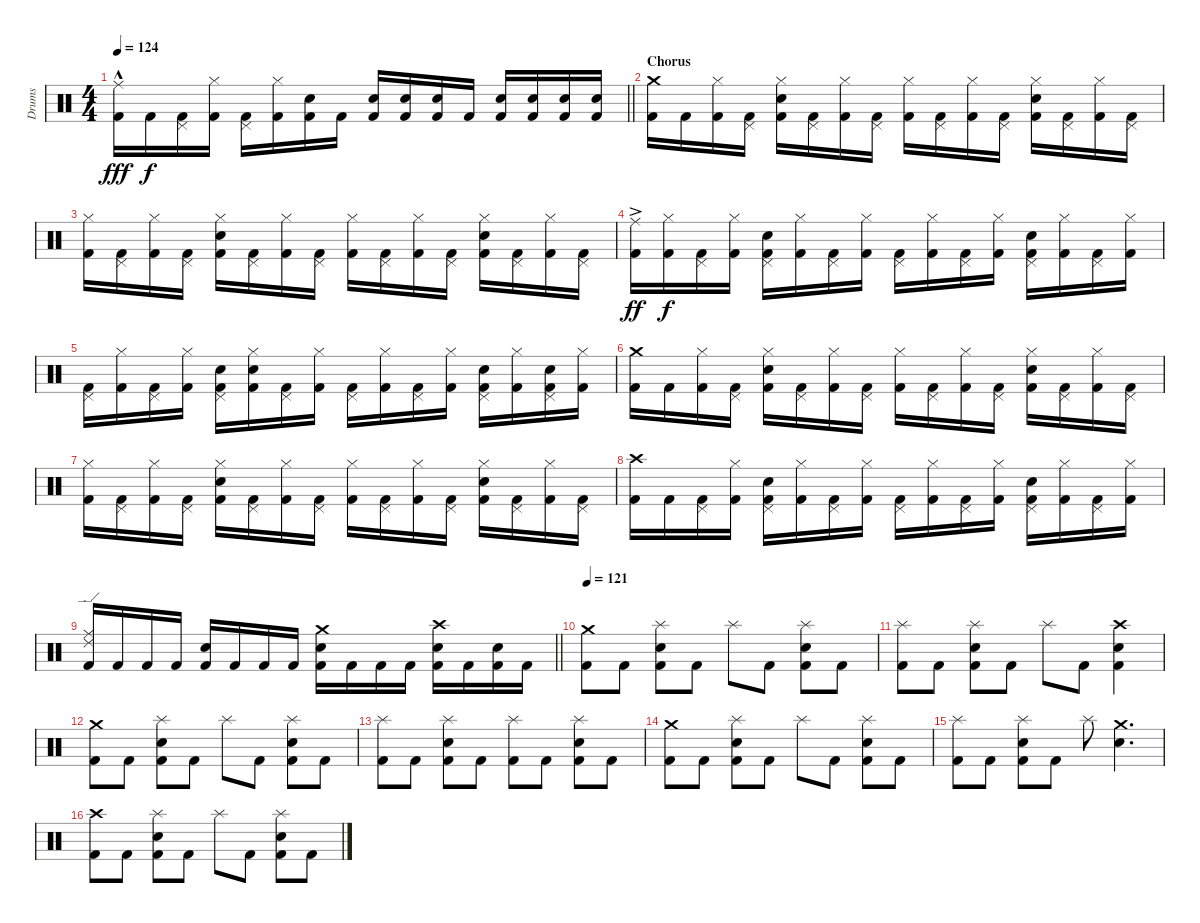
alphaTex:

\track ("Drums" "Drums") {instrument percussion}
\staff {score}
\articulation defaults
\ts (4 4)
\tempo 124
\clef neutral
\barLineRight lightlight
\ks c
("Kick (hit) 2" "Ride (middle)"{hac}).16{dy fff} "Kick (hit) 2".16{dy f} ("Kick (hit) 2" "Pedal Hi-Hat (hit)").16 ("Kick (hit) 2" "Hi-Hat (closed)").16 ("Kick (hit) 2" "Pedal Hi-Hat (hit)").16 ("Kick (hit) 2" "Hi-Hat (closed)").16 ("Kick (hit) 2" "Snare (hit) 2").16 "Kick (hit) 2".16 ("Kick (hit) 2" "Snare (hit) 2").16 ("Kick (hit) 2" "Snare (hit) 2").16 ("Kick (hit) 2" "Snare (hit) 2").16 "Kick (hit) 2".16 ("Kick (hit) 2" "Snare (hit) 2").16 ("Kick (hit) 2" "Snare (hit) 2").16 ("Kick (hit) 2" "Snare (hit) 2").16 ("Kick (hit) 2" "Snare (hit) 2").16 |
\section ("" "Chorus")
("Kick (hit) 2" "Crash medium (hit)").16 "Kick (hit) 2".16 ("Kick (hit) 2" "Hi-Hat (closed)").16 ("Kick (hit) 2" "Pedal Hi-Hat (hit)").16 ("Kick (hit) 2" "Snare (hit) 2" "Hi-Hat (closed)").16 ("Kick (hit) 2" "Pedal Hi-Hat (hit)").16 ("Kick (hit) 2" "Hi-Hat (closed)").16 ("Kick (hit) 2" "Pedal Hi-Hat (hit)").16 ("Kick (hit) 2" "Hi-Hat (closed)").16 ("Kick (hit) 2" "Pedal Hi-Hat (hit)").16 ("Kick (hit) 2" "Hi-Hat (closed)").16 ("Kick (hit) 2" "Pedal Hi-Hat (hit)").16 ("Kick (hit) 2" "Snare (hit) 2" "Hi-Hat (closed)").16 ("Kick (hit) 2" "Pedal Hi-Hat (hit)").16 ("Kick (hit) 2" "Hi-Hat (closed)").16 ("Kick (hit) 2" "Pedal Hi-Hat (hit)").16 |
("Kick (hit) 2" "Hi-Hat (closed)").16 ("Kick (hit) 2" "Pedal Hi-Hat (hit)").16 ("Kick (hit) 2" "Hi-Hat (closed)").16 ("Kick (hit) 2" "Pedal Hi-Hat (hit)").16 ("Kick (hit) 2" "Snare (hit) 2" "Hi-Hat (closed)").16 ("Kick (hit) 2" "Pedal Hi-Hat (hit)").16 ("Kick (hit) 2" "Hi-Hat (closed)").16 ("Kick (hit) 2" "Pedal Hi-Hat (hit)").16 ("Kick (hit) 2" "Hi-Hat (closed)").16 ("Kick (hit) 2" "Pedal Hi-Hat (hit)").16 ("Kick (hit) 2" "Hi-Hat (closed)").16 ("Kick (hit) 2" "Pedal Hi-Hat (hit)").16 ("Kick (hit) 2" "Snare (hit) 2" "Hi-Hat (closed)").16 ("Kick (hit) 2" "Pedal Hi-Hat (hit)").16 ("Kick (hit) 2" "Hi-Hat (closed)").16 ("Kick (hit) 2" "Pedal Hi-Hat (hit)").16 |
("Kick (hit) 2" "Ride (middle)"{ac}).16{dy ff} ("Kick (hit) 2" "Hi-Hat (closed)").16{dy f} ("Kick (hit) 2" "Pedal Hi-Hat (hit)").16 ("Kick (hit) 2" "Hi-Hat (closed)").16 ("Kick (hit) 2" "Snare (hit) 2" "Pedal Hi-Hat (hit)").16 ("Kick (hit) 2" "Hi-Hat (closed)").16 ("Kick (hit) 2" "Pedal Hi-Hat (hit)").16 ("Kick (hit) 2" "Hi-Hat (closed)").16 ("Kick (hit) 2" "Pedal Hi-Hat (hit)").16 ("Kick (hit) 2" "Hi-Hat (closed)").16 ("Kick (hit) 2" "Pedal Hi-Hat (hit)").16 ("Kick (hit) 2" "Hi-Hat (closed)").16 ("Kick (hit) 2" "Snare (hit) 2" "Pedal Hi-Hat (hit)").16 ("Kick (hit) 2" "Hi-Hat (closed)").16 ("Kick (hit) 2" "Pedal Hi-Hat (hit)").16 ("Kick (hit) 2" "Hi-Hat (closed)").16 |
("Kick (hit) 2" "Pedal Hi-Hat (hit)").16 ("Kick (hit) 2" "Hi-Hat (closed)").16 ("Kick (hit) 2" "Pedal Hi-Hat (hit)").16 ("Kick (hit) 2" "Hi-Hat (closed)").16 ("Kick (hit) 2" "Snare (hit) 2" "Pedal Hi-Hat (hit)").16 ("Kick (hit) 2" "Snare (hit) 2" "Hi-Hat (closed)").16 ("Kick (hit) 2" "Pedal Hi-Hat (hit)").16 ("Kick (hit) 2" "Hi-Hat (closed)").16 ("Kick (hit) 2" "Pedal Hi-Hat (hit)").16 ("Kick (hit) 2" "Hi-Hat (closed)").16 ("Kick (hit) 2" "Pedal Hi-Hat (hit)").16 ("Kick (hit) 2" "Hi-Hat (closed)").16 ("Kick (hit) 2" "Snare (hit) 2" "Pedal Hi-Hat (hit)").16 ("Kick (hit) 2" "Hi-Hat (closed)").16 ("Kick (hit) 2" "Snare (hit) 2" "Pedal Hi-Hat (hit)").16 ("Kick (hit) 2" "Hi-Hat (closed)").16 |
("Kick (hit) 2" "Crash medium (hit)").16 "Kick (hit) 2".16 ("Kick (hit) 2" "Hi-Hat (closed)").16 ("Kick (hit) 2" "Pedal Hi-Hat (hit)").16 ("Kick (hit) 2" "Snare (hit) 2" "Hi-Hat (closed)").16 ("Kick (hit) 2" "Pedal Hi-Hat (hit)").16 ("Kick (hit) 2" "Hi-Hat (closed)").16 ("Kick (hit) 2" "Pedal Hi-Hat (hit)").16 ("Kick (hit) 2" "Hi-Hat (closed)").16 ("Kick (hit) 2" "Pedal Hi-Hat (hit)").16 ("Kick (hit) 2" "Hi-Hat (closed)").16 ("Kick (hit) 2" "Pedal Hi-Hat (hit)").16 ("Kick (hit) 2" "Snare (hit) 2" "Hi-Hat (closed)").16 ("Kick (hit) 2" "Pedal Hi-Hat (hit)").16 ("Kick (hit) 2" "Hi-Hat (closed)").16 ("Kick (hit) 2" "Pedal Hi-Hat (hit)").16 |
("Kick (hit) 2" "Hi-Hat (closed)").16 ("Kick (hit) 2" "Pedal Hi-Hat (hit)").16 ("Kick (hit) 2" "Hi-Hat (closed)").16 ("Kick (hit) 2" "Pedal Hi-Hat (hit)").16 ("Kick (hit) 2" "Snare (hit) 2" "Hi-Hat (closed)").16 ("Kick (hit) 2" "Pedal Hi-Hat (hit)").16 ("Kick (hit) 2" "Hi-Hat (closed)").16 ("Kick (hit) 2" "Pedal Hi-Hat (hit)").16 ("Kick (hit) 2" "Hi-Hat (closed)").16 ("Kick (hit) 2" "Pedal Hi-Hat (hit)").16 ("Kick (hit) 2" "Hi-Hat (closed)").16 ("Kick (hit) 2" "Pedal Hi-Hat (hit)").16 ("Kick (hit) 2" "Snare (hit) 2" "Hi-Hat (closed)").16 ("Kick (hit) 2" "Pedal Hi-Hat (hit)").16 ("Kick (hit) 2" "Hi-Hat (closed)").16 ("Kick (hit) 2" "Pedal Hi-Hat (hit)").16 |
("Kick (hit) 2" "Crash high (hit)").16 "Kick (hit) 2".16 ("Kick (hit) 2" "Pedal Hi-Hat (hit)").16 ("Kick (hit) 2" "Hi-Hat (closed)").16 ("Kick (hit) 2" "Snare (hit) 2" "Pedal Hi-Hat (hit)").16 ("Kick (hit) 2" "Hi-Hat (closed)").16 ("Kick (hit) 2" "Pedal Hi-Hat (hit)").16 ("Kick (hit) 2" "Hi-Hat (closed)").16 ("Kick (hit) 2" "Pedal Hi-Hat (hit)").16 ("Kick (hit) 2" "Hi-Hat (closed)").16 ("Kick (hit) 2" "Pedal Hi-Hat (hit)").16 ("Kick (hit) 2" "Hi-Hat (closed)").16 ("Kick (hit) 2" "Snare (hit) 2" "Pedal Hi-Hat (hit)").16 ("Kick (hit) 2" "Hi-Hat (closed)").16 ("Kick (hit) 2" "Pedal Hi-Hat (hit)").16 ("Kick (hit) 2" "Hi-Hat (closed)").16 |
\barLineRight lightlight
("Kick (hit) 2" "Ride (middle)" "Ride (edge) 2").16 "Kick (hit) 2".16 "Kick (hit) 2".16 "Kick (hit) 2".16 ("Kick (hit) 2" "Snare (hit) 2").16 "Kick (hit) 2".16 "Kick (hit) 2".16 "Kick (hit) 2".16 ("Kick (hit) 2" "Snare (hit) 2" "Crash medium (hit)").16 "Kick (hit) 2".16 "Kick (hit) 2".16 "Kick (hit) 2".16 ("Kick (hit) 2" "Snare (hit) 2" "Crash high (hit)").16 "Kick (hit) 2".16 ("Kick (hit) 2" "Snare (hit) 2").16 "Kick (hit) 2".16 |
\section ("" "")
\tempo 121
("Kick (hit) 2" "Crash medium (hit)").8 "Kick (hit) 2".8 ("Kick (hit) 2" "Snare (hit) 2" "Splash (hit)").8 "Kick (hit) 2".8 "Splash (hit)".8 "Kick (hit) 2".8 ("Kick (hit) 2" "Snare (hit) 2" "Splash (hit)").8 "Kick (hit) 2".8 |
("Kick (hit) 2" "Splash (hit)").8 "Kick (hit) 2".8 ("Kick (hit) 2" "Snare (hit) 2" "Splash (hit)").8 "Kick (hit) 2".8 "Splash (hit)".8 "Kick (hit) 2".8 ("Kick (hit) 2" "Snare (hit) 2" "Crash high (hit)").4 |
("Kick (hit) 2" "Crash medium (hit)").8 "Kick (hit) 2".8 ("Kick (hit) 2" "Snare (hit) 2" "Splash (hit)").8 "Kick (hit) 2".8 "Splash (hit)".8 "Kick (hit) 2".8 ("Kick (hit) 2" "Snare (hit) 2" "Splash (hit)").8 "Kick (hit) 2".8 |
("Kick (hit) 2" "Splash (hit)").8 "Kick (hit) 2".8 ("Kick (hit) 2" "Snare (hit) 2" "Splash (hit)").8 "Kick (hit) 2".8 ("Kick (hit) 2" "Splash (hit)").8 "Kick (hit) 2".8 ("Kick (hit) 2" "Snare (hit) 2" "Splash (hit)").8 "Kick (hit) 2".8 |
("Kick (hit) 2" "Crash medium (hit)").8 "Kick (hit) 2".8 ("Kick (hit) 2" "Snare (hit) 2" "Splash (hit)").8 "Kick (hit) 2".8 "Splash (hit)".8 "Kick (hit) 2".8 ("Kick (hit) 2" "Snare (hit) 2" "Splash (hit)").8 "Kick (hit) 2".8 |
("Kick (hit) 2" "Splash (hit)").8 "Kick (hit) 2".8 ("Kick (hit) 2" "Snare (hit) 2" "Splash (hit)").8 "Kick (hit) 2".8 "Splash (hit)".8 ("Snare (hit) 2" "Crash medium (hit)").4{d} |
("Kick (hit) 2" "Crash high (hit)").8 "Kick (hit) 2".8 ("Kick (hit) 2" "Snare (hit) 2" "Splash (hit)").8 "Kick (hit) 2".8 "Splash (hit)".8 "Kick (hit) 2".8 ("Kick (hit) 2" "Snare (hit) 2" "Splash (hit)").8 "Kick (hit) 2".8
